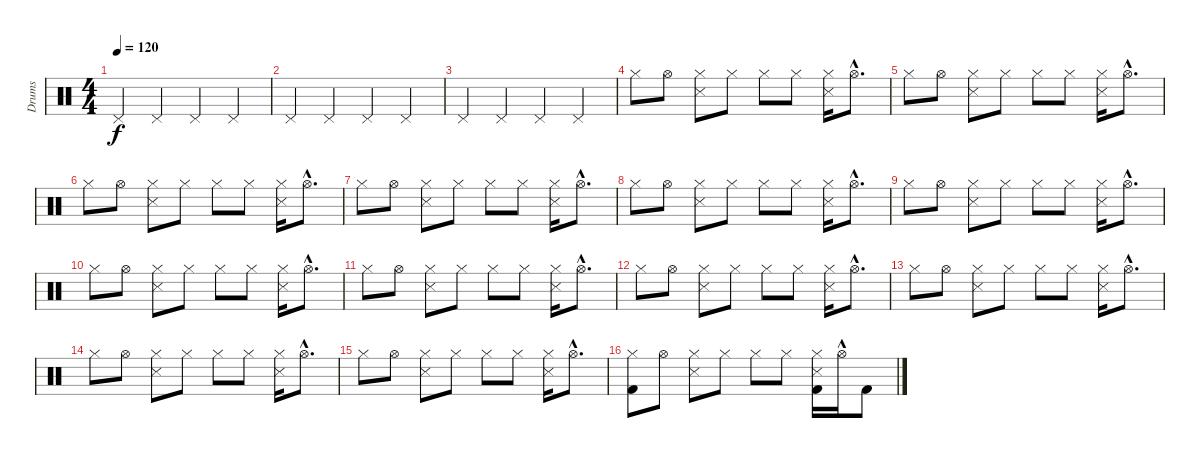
\track ("Drums" "Drums") {instrument percussion}
\staff {score}
\articulation defaults
\ts (4 4)
\tempo 120
\clef neutral
\ks c "Pedal Hi-Hat (hit)".4{dy f} "Pedal Hi-Hat (hit)".4 "Pedal Hi-Hat (hit)".4 "Pedal Hi-Hat (hit)".4
|
"Pedal Hi-Hat (hit)".4 "Pedal Hi-Hat (hit)".4 "Pedal Hi-Hat (hit)".4 "Pedal Hi-Hat (hit)".4 |
"Pedal Hi-Hat (hit)".4 "Pedal Hi-Hat (hit)".4 "Pedal Hi-Hat (hit)".4 "Pedal Hi-Hat (hit)".4 |
"Hi-Hat (closed)".8 "Hi-Hat (open)".8 ("Snare (side stick) 3" "Hi-Hat (closed)").8 "Hi-Hat (closed)".8 "Hi-Hat (closed)".8 "Hi-Hat (closed)".8 ("Snare (side stick) 3" "Hi-Hat (closed)").16 "Hi-Hat (open)"{hac}.8{d} |
"Hi-Hat (closed)".8 "Hi-Hat (open)".8 ("Snare (side stick) 3" "Hi-Hat (closed)").8 "Hi-Hat (closed)".8 "Hi-Hat (closed)".8 "Hi-Hat (closed)".8 ("Snare (side stick) 3" "Hi-Hat (closed)").16 "Hi-Hat (open)"{hac}.8{d} |
"Hi-Hat (closed)".8 "Hi-Hat (open)".8 ("Snare (side stick) 3" "Hi-Hat (closed)").8 "Hi-Hat (closed)".8 "Hi-Hat (closed)".8 "Hi-Hat (closed)".8 ("Snare (side stick) 3" "Hi-Hat (closed)").16 "Hi-Hat (open)"{hac}.8{d} |
"Hi-Hat (closed)".8 "Hi-Hat (open)".8 ("Snare (side stick) 3" "Hi-Hat (closed)").8 "Hi-Hat (closed)".8 "Hi-Hat (closed)".8 "Hi-Hat (closed)".8 ("Snare (side stick) 3" "Hi-Hat (closed)").16 "Hi-Hat (open)"{hac}.8{d} |
"Hi-Hat (closed)".8 "Hi-Hat (open)".8 ("Snare (side stick) 3" "Hi-Hat (closed)").8 "Hi-Hat (closed)".8 "Hi-Hat (closed)".8 "Hi-Hat (closed)".8 ("Snare (side stick) 3" "Hi-Hat (closed)").16 "Hi-Hat (open)"{hac}.8{d} |
"Hi-Hat (closed)".8 "Hi-Hat (open)".8 ("Snare (side stick) 3" "Hi-Hat (closed)").8 "Hi-Hat (closed)".8 "Hi-Hat (closed)".8 "Hi-Hat (closed)".8 ("Snare (side stick) 3" "Hi-Hat (closed)").16 "Hi-Hat (open)"{hac}.8{d} |
"Hi-Hat (closed)".8 "Hi-Hat (open)".8 ("Snare (side stick) 3" "Hi-Hat (closed)").8 "Hi-Hat (closed)".8 "Hi-Hat (closed)".8 "Hi-Hat (closed)".8 ("Snare (side stick) 3" "Hi-Hat (closed)").16 "Hi-Hat (open)"{hac}.8{d} |
"Hi-Hat (closed)".8 "Hi-Hat (open)".8 ("Snare (side stick) 3" "Hi-Hat (closed)").8 "Hi-Hat (closed)".8 "Hi-Hat (closed)".8 "Hi-Hat (closed)".8 ("Snare (side stick) 3" "Hi-Hat (closed)").16 "Hi-Hat (open)"{hac}.8{d} |
"Hi-Hat (closed)".8 "Hi-Hat (open)".8 ("Snare (side stick) 3" "Hi-Hat (closed)").8 "Hi-Hat (closed)".8 "Hi-Hat (closed)".8 "Hi-Hat (closed)".8 ("Snare (side stick) 3" "Hi-Hat (closed)").16 "Hi-Hat (open)"{hac}.8{d} |
"Hi-Hat (closed)".8 "Hi-Hat (open)".8 ("Snare (side stick) 3" "Hi-Hat (closed)").8 "Hi-Hat (closed)".8 "Hi-Hat (closed)".8 "Hi-Hat (closed)".8 ("Snare (side stick) 3" "Hi-Hat (closed)").16 "Hi-Hat (open)"{hac}.8{d} |
"Hi-Hat (closed)".8 "Hi-Hat (open)".8 ("Snare (side stick) 3" "Hi-Hat (closed)").8 "Hi-Hat (closed)".8 "Hi-Hat (closed)".8 "Hi-Hat (closed)".8 ("Snare (side stick) 3" "Hi-Hat (closed)").16 "Hi-Hat (open)"{hac}.8{d} |
"Hi-Hat (closed)".8 "Hi-Hat (open)".8 ("Snare (side stick) 3" "Hi-Hat (closed)").8 "Hi-Hat (closed)".8 "Hi-Hat (closed)".8 "Hi-Hat (closed)".8 ("Snare (side stick) 3" "Hi-Hat (closed)").16 "Hi-Hat (open)"{hac}.8{d} |
("Kick (hit) 2" "Hi-Hat (closed)").8 "Hi-Hat (open)".8 ("Snare (side stick) 3" "Hi-Hat (closed)").8 "Hi-Hat (closed)".8 "Hi-Hat (closed)".8 "Hi-Hat (closed)".8 ("Snare (side stick) 3" "Kick (hit) 2" "Hi-Hat (closed)").16 "Hi-Hat (open)"{hac}.16 "Kick (hit) 2".8
